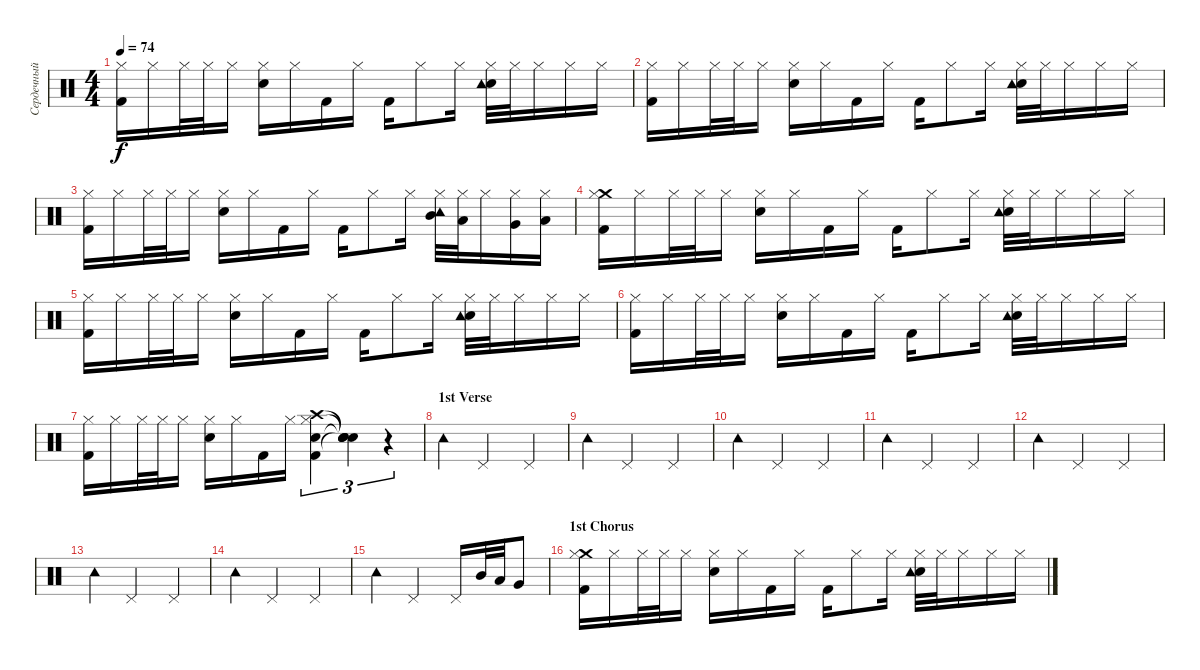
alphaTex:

\track ("Сердечный (Ударные)" "Сердечный ") {instrument percussion}
\staff {score}
\articulation defaults
\ts (4 4)
\tempo 74
\clef neutral
\ks c
("Kick (hit) 2" "Hi-Hat (closed)").16{dy f} "Hi-Hat (closed)".16 "Hi-Hat (closed)".32 "Hi-Hat (closed)".32 "Hi-Hat (closed)".16 ("Electric Snare (hit)" "Hi-Hat (closed)").16 "Hi-Hat (closed)".16 "Kick (hit) 2".16 "Hi-Hat (closed)".16 "Kick (hit) 2".16 "Hi-Hat (closed)".8 "Hi-Hat (closed)".16 ("Electric Snare (hit)" "Tambourine (hit)" "Hi-Hat (closed)").32 "Hi-Hat (closed)".32 "Hi-Hat (closed)".16 "Hi-Hat (closed)".16 "Hi-Hat (closed)".16 |
("Kick (hit) 2" "Hi-Hat (closed)").16 "Hi-Hat (closed)".16 "Hi-Hat (closed)".32 "Hi-Hat (closed)".32 "Hi-Hat (closed)".16 ("Electric Snare (hit)" "Hi-Hat (closed)").16 "Hi-Hat (closed)".16 "Kick (hit) 2".16 "Hi-Hat (closed)".16 "Kick (hit) 2".16 "Hi-Hat (closed)".8 "Hi-Hat (closed)".16 ("Electric Snare (hit)" "Tambourine (hit)" "Hi-Hat (closed)").32 "Hi-Hat (closed)".32 "Hi-Hat (closed)".16 "Hi-Hat (closed)".16 "Hi-Hat (closed)".16 |
("Kick (hit) 2" "Hi-Hat (closed)").16 "Hi-Hat (closed)".16 "Hi-Hat (closed)".32 "Hi-Hat (closed)".32 "Hi-Hat (closed)".16 ("Electric Snare (hit)" "Hi-Hat (closed)").16 "Hi-Hat (closed)".16 "Kick (hit) 2".16 "Hi-Hat (closed)".16 "Kick (hit) 2".16 "Hi-Hat (closed)".8 "Hi-Hat (closed)".16 ("Mid Tom (hit)" "Tambourine (hit)" "Hi-Hat (closed)").32 ("Low Tom (hit)" "Hi-Hat (closed)").32 "Hi-Hat (closed)".16 ("Very Low Tom (hit)" "Hi-Hat (closed)").16 ("Low Floor Tom (hit)" "Hi-Hat (closed)").16 |
("Kick (hit) 2" "Crash medium (hit)" "Hi-Hat (closed)").16 "Hi-Hat (closed)".16 "Hi-Hat (closed)".32 "Hi-Hat (closed)".32 "Hi-Hat (closed)".16 ("Electric Snare (hit)" "Hi-Hat (closed)").16 "Hi-Hat (closed)".16 "Kick (hit) 2".16 "Hi-Hat (closed)".16 "Kick (hit) 2".16 "Hi-Hat (closed)".8 "Hi-Hat (closed)".16 ("Electric Snare (hit)" "Tambourine (hit)" "Hi-Hat (closed)").32 "Hi-Hat (closed)".32 "Hi-Hat (closed)".16 "Hi-Hat (closed)".16 "Hi-Hat (closed)".16 |
("Kick (hit) 2" "Hi-Hat (closed)").16 "Hi-Hat (closed)".16 "Hi-Hat (closed)".32 "Hi-Hat (closed)".32 "Hi-Hat (closed)".16 ("Electric Snare (hit)" "Hi-Hat (closed)").16 "Hi-Hat (closed)".16 "Kick (hit) 2".16 "Hi-Hat (closed)".16 "Kick (hit) 2".16 "Hi-Hat (closed)".8 "Hi-Hat (closed)".16 ("Electric Snare (hit)" "Tambourine (hit)" "Hi-Hat (closed)").32 "Hi-Hat (closed)".32 "Hi-Hat (closed)".16 "Hi-Hat (closed)".16 "Hi-Hat (closed)".16 |
("Kick (hit) 2" "Hi-Hat (closed)").16 "Hi-Hat (closed)".16 "Hi-Hat (closed)".32 "Hi-Hat (closed)".32 "Hi-Hat (closed)".16 ("Electric Snare (hit)" "Hi-Hat (closed)").16 "Hi-Hat (closed)".16 "Kick (hit) 2".16 "Hi-Hat (closed)".16 "Kick (hit) 2".16 "Hi-Hat (closed)".8 "Hi-Hat (closed)".16 ("Electric Snare (hit)" "Tambourine (hit)" "Hi-Hat (closed)").32 "Hi-Hat (closed)".32 "Hi-Hat (closed)".16 "Hi-Hat (closed)".16 "Hi-Hat (closed)".16 |
("Kick (hit) 2" "Hi-Hat (closed)").16 "Hi-Hat (closed)".16 "Hi-Hat (closed)".32 "Hi-Hat (closed)".32 "Hi-Hat (closed)".16 ("Electric Snare (hit)" "Hi-Hat (closed)").16 "Hi-Hat (closed)".16 "Kick (hit) 2".16 "Hi-Hat (closed)".16 ("Kick (hit) 2" "Electric Snare (hit)" "Crash high (hit)" "Hi-Hat (closed)").4{tu (3 2)} ("Snare (hit)"{t} "Snare (hit)"{t} "Snare (hit)"{t} "Snare (hit)"{t}).4{tu (3 2)} r.4{tu (3 2)} |
\section ("" "1st Verse")
"Tambourine (hit)".4 "Pedal Hi-Hat (hit)".2 "Pedal Hi-Hat (hit)".4 |
"Tambourine (hit)".4 "Pedal Hi-Hat (hit)".2 "Pedal Hi-Hat (hit)".4 |
"Tambourine (hit)".4 "Pedal Hi-Hat (hit)".2 "Pedal Hi-Hat (hit)".4 |
"Tambourine (hit)".4 "Pedal Hi-Hat (hit)".2 "Pedal Hi-Hat (hit)".4 |
"Tambourine (hit)".4 "Pedal Hi-Hat (hit)".2 "Pedal Hi-Hat (hit)".4 |
"Tambourine (hit)".4 "Pedal Hi-Hat (hit)".2 "Pedal Hi-Hat (hit)".4 |
"Tambourine (hit)".4 "Pedal Hi-Hat (hit)".2 "Pedal Hi-Hat (hit)".4 |
"Tambourine (hit)".4 "Pedal Hi-Hat (hit)".2 "Pedal Hi-Hat (hit)".16 "Mid Tom (hit)".32 "Low Tom (hit)".32 "Very Low Tom (hit)".8 |
\section ("" "1st Chorus")
("Kick (hit) 2" "Crash medium (hit)" "Hi-Hat (closed)").16 "Hi-Hat (closed)".16 "Hi-Hat (closed)".32 "Hi-Hat (closed)".32 "Hi-Hat (closed)".16 ("Electric Snare (hit)" "Hi-Hat (closed)").16 "Hi-Hat (closed)".16 "Kick (hit) 2".16 "Hi-Hat (closed)".16 "Kick (hit) 2".16 "Hi-Hat (closed)".8 "Hi-Hat (closed)".16 ("Electric Snare (hit)" "Tambourine (hit)" "Hi-Hat (closed)").32 "Hi-Hat (closed)".32 "Hi-Hat (closed)".16 "Hi-Hat (closed)".16 "Hi-Hat (closed)".16
